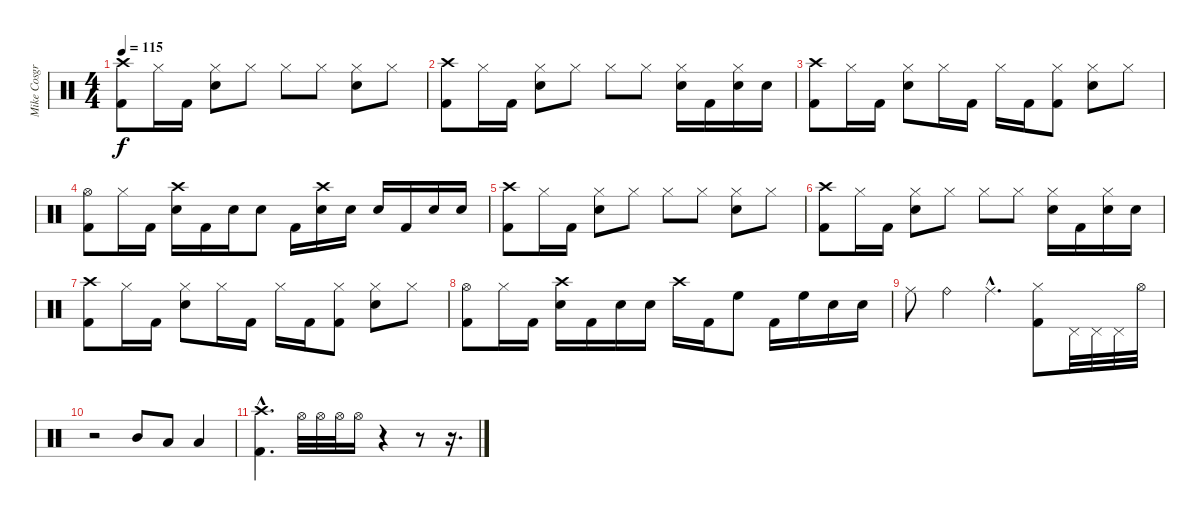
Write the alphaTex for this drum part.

\track ("Mike Cosgrove" "Mike Cosgr") {instrument percussion}
\staff {score}
\articulation defaults
\ts (4 4)
\tempo 115
\clef neutral
\ks c
("Crash high (hit)" "Kick (hit) 2").8{dy f} "Hi-Hat (closed)".16 "Kick (hit) 2".16 ("Hi-Hat (closed)" "Electric Snare (hit)").8 "Hi-Hat (closed)".8 "Hi-Hat (closed)".8 "Hi-Hat (closed)".8 ("Hi-Hat (closed)" "Electric Snare (hit)").8 "Hi-Hat (closed)".8 |
("Crash high (hit)" "Kick (hit) 2").8 "Hi-Hat (closed)".16 "Kick (hit) 2".16 ("Hi-Hat (closed)" "Electric Snare (hit)").8 "Hi-Hat (closed)".8 "Hi-Hat (closed)".8 "Hi-Hat (closed)".8 ("Hi-Hat (closed)" "Electric Snare (hit)").16 "Kick (hit) 2".16 ("Hi-Hat (closed)" "Electric Snare (hit)").16 "Electric Snare (hit)".16 |
("Crash high (hit)" "Kick (hit) 2").8 "Hi-Hat (closed)".16 "Kick (hit) 2".16 ("Hi-Hat (closed)" "Electric Snare (hit)").8 "Hi-Hat (closed)".16 "Kick (hit) 2".16 "Hi-Hat (closed)".16 "Kick (hit) 2".16 ("Hi-Hat (closed)" "Kick (hit) 2").8 ("Hi-Hat (closed)" "Electric Snare (hit)").8 "Hi-Hat (closed)".8 |
("Hi-Hat (open)" "Kick (hit) 2").8 "Hi-Hat (closed)".16 "Kick (hit) 2".16 ("Crash high (hit)" "Electric Snare (hit)").16 "Kick (hit) 2".16 "Electric Snare (hit)".16 "Electric Snare (hit)".8 "Kick (hit) 2".16 ("Crash high (hit)" "Electric Snare (hit)").16 "Electric Snare (hit)".16 "Electric Snare (hit)".16 "Kick (hit) 2".16 "Electric Snare (hit)".16 "Electric Snare (hit)".16 |
("Crash high (hit)" "Kick (hit) 2").8 "Hi-Hat (closed)".16 "Kick (hit) 2".16 ("Hi-Hat (closed)" "Electric Snare (hit)").8 "Hi-Hat (closed)".8 "Hi-Hat (closed)".8 "Hi-Hat (closed)".8 ("Hi-Hat (closed)" "Electric Snare (hit)").8 "Hi-Hat (closed)".8 |
("Crash high (hit)" "Kick (hit) 2").8 "Hi-Hat (closed)".16 "Kick (hit) 2".16 ("Hi-Hat (closed)" "Electric Snare (hit)").8 "Hi-Hat (closed)".8 "Hi-Hat (closed)".8 "Hi-Hat (closed)".8 ("Hi-Hat (closed)" "Electric Snare (hit)").16 "Kick (hit) 2".16 ("Hi-Hat (closed)" "Electric Snare (hit)").16 "Electric Snare (hit)".16 |
("Crash high (hit)" "Kick (hit) 2").8 "Hi-Hat (closed)".16 "Kick (hit) 2".16 ("Hi-Hat (closed)" "Electric Snare (hit)").8 "Hi-Hat (closed)".16 "Kick (hit) 2".16 "Hi-Hat (closed)".16 "Kick (hit) 2".16 ("Hi-Hat (closed)" "Kick (hit) 2").8 ("Hi-Hat (closed)" "Electric Snare (hit)").8 "Hi-Hat (closed)".8 |
("Hi-Hat (open)" "Kick (hit) 2").8 "Hi-Hat (closed)".16 "Kick (hit) 2".16 ("Crash high (hit)" "Electric Snare (hit)").16 "Kick (hit) 2".16 "Electric Snare (hit)".16 "Electric Snare (hit)".16 "Crash high (hit)".16 "Kick (hit) 2".16 "High Floor Tom (hit)".8 "Kick (hit) 2".16 "High Floor Tom (hit)".16 "Electric Snare (hit)".16 "Electric Snare (hit)".16 |
"Ride (middle)".8 "Ride (bell)".4 "Ride (middle)"{hac}.4{d} ("Hi-Hat (closed)" "Kick (hit) 2").8 "Pedal Hi-Hat (hit)".32 "Pedal Hi-Hat (hit)".32 "Pedal Hi-Hat (hit)".32 "Hi-Hat (open)".32 |
r.2 "Mid Tom (hit)".8 "Low Tom (hit)".8 "Low Floor Tom (hit)".4 |
("Crash high (hit)"{hac} "Kick (hit) 2"{hac}).4{d} "Hi-Hat (open)".32 "Hi-Hat (open)".32 "Hi-Hat (open)".32 "Hi-Hat (open)".16 r.4 r.8 r.16{d}
